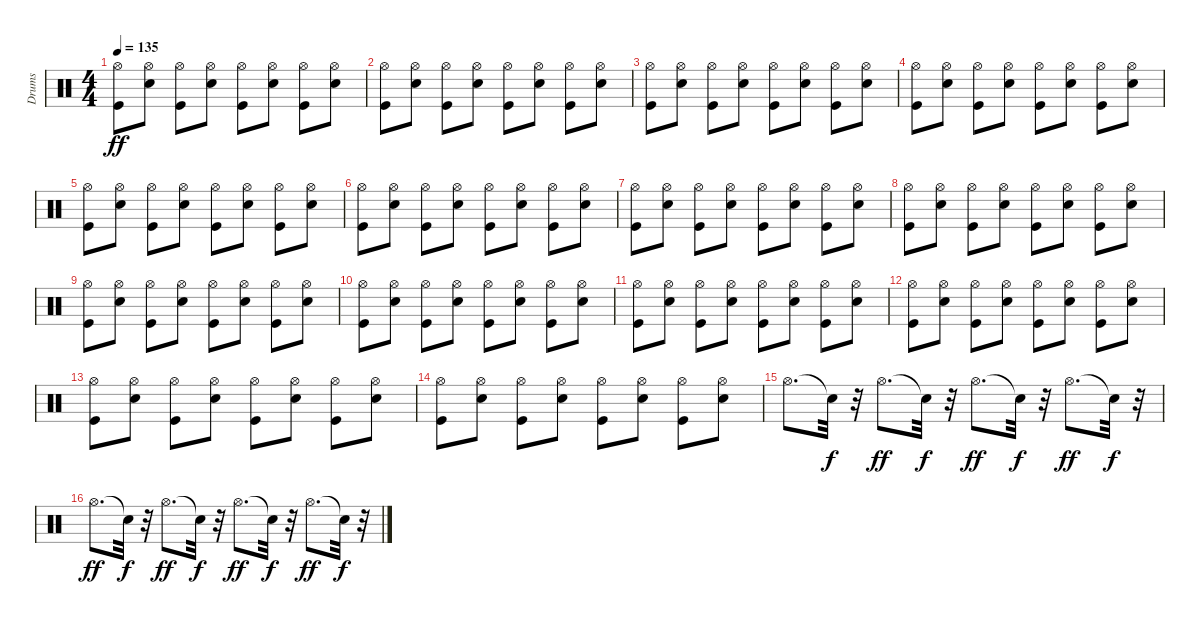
\track ("Drums" "Drums") {instrument percussion}
\staff {score}
\articulation defaults
\ts (4 4)
\tempo 135
\clef neutral
\ks c
("Kick (hit)" "Hi-Hat (open)").8{dy ff} ("Electric Snare (hit)" "Hi-Hat (open)").8 ("Kick (hit)" "Hi-Hat (open)").8 ("Electric Snare (hit)" "Hi-Hat (open)").8 ("Kick (hit)" "Hi-Hat (open)").8 ("Electric Snare (hit)" "Hi-Hat (open)").8 ("Kick (hit)" "Hi-Hat (open)").8 ("Electric Snare (hit)" "Hi-Hat (open)").8 |
("Kick (hit)" "Hi-Hat (open)").8 ("Electric Snare (hit)" "Hi-Hat (open)").8 ("Kick (hit)" "Hi-Hat (open)").8 ("Electric Snare (hit)" "Hi-Hat (open)").8 ("Kick (hit)" "Hi-Hat (open)").8 ("Electric Snare (hit)" "Hi-Hat (open)").8 ("Kick (hit)" "Hi-Hat (open)").8 ("Electric Snare (hit)" "Hi-Hat (open)").8 |
("Kick (hit)" "Hi-Hat (open)").8 ("Electric Snare (hit)" "Hi-Hat (open)").8 ("Kick (hit)" "Hi-Hat (open)").8 ("Electric Snare (hit)" "Hi-Hat (open)").8 ("Kick (hit)" "Hi-Hat (open)").8 ("Electric Snare (hit)" "Hi-Hat (open)").8 ("Kick (hit)" "Hi-Hat (open)").8 ("Electric Snare (hit)" "Hi-Hat (open)").8 |
("Kick (hit)" "Hi-Hat (open)").8 ("Electric Snare (hit)" "Hi-Hat (open)").8 ("Kick (hit)" "Hi-Hat (open)").8 ("Electric Snare (hit)" "Hi-Hat (open)").8 ("Kick (hit)" "Hi-Hat (open)").8 ("Electric Snare (hit)" "Hi-Hat (open)").8 ("Kick (hit)" "Hi-Hat (open)").8 ("Electric Snare (hit)" "Hi-Hat (open)").8 |
("Kick (hit)" "Hi-Hat (open)").8 ("Electric Snare (hit)" "Hi-Hat (open)").8 ("Kick (hit)" "Hi-Hat (open)").8 ("Electric Snare (hit)" "Hi-Hat (open)").8 ("Kick (hit)" "Hi-Hat (open)").8 ("Electric Snare (hit)" "Hi-Hat (open)").8 ("Kick (hit)" "Hi-Hat (open)").8 ("Electric Snare (hit)" "Hi-Hat (open)").8 |
("Kick (hit)" "Hi-Hat (open)").8 ("Electric Snare (hit)" "Hi-Hat (open)").8 ("Kick (hit)" "Hi-Hat (open)").8 ("Electric Snare (hit)" "Hi-Hat (open)").8 ("Kick (hit)" "Hi-Hat (open)").8 ("Electric Snare (hit)" "Hi-Hat (open)").8 ("Kick (hit)" "Hi-Hat (open)").8 ("Electric Snare (hit)" "Hi-Hat (open)").8 |
("Kick (hit)" "Hi-Hat (open)").8 ("Electric Snare (hit)" "Hi-Hat (open)").8 ("Kick (hit)" "Hi-Hat (open)").8 ("Electric Snare (hit)" "Hi-Hat (open)").8 ("Kick (hit)" "Hi-Hat (open)").8 ("Electric Snare (hit)" "Hi-Hat (open)").8 ("Kick (hit)" "Hi-Hat (open)").8 ("Electric Snare (hit)" "Hi-Hat (open)").8 |
("Kick (hit)" "Hi-Hat (open)").8 ("Electric Snare (hit)" "Hi-Hat (open)").8 ("Kick (hit)" "Hi-Hat (open)").8 ("Electric Snare (hit)" "Hi-Hat (open)").8 ("Kick (hit)" "Hi-Hat (open)").8 ("Electric Snare (hit)" "Hi-Hat (open)").8 ("Kick (hit)" "Hi-Hat (open)").8 ("Electric Snare (hit)" "Hi-Hat (open)").8 |
("Kick (hit)" "Hi-Hat (open)").8 ("Electric Snare (hit)" "Hi-Hat (open)").8 ("Kick (hit)" "Hi-Hat (open)").8 ("Electric Snare (hit)" "Hi-Hat (open)").8 ("Kick (hit)" "Hi-Hat (open)").8 ("Electric Snare (hit)" "Hi-Hat (open)").8 ("Kick (hit)" "Hi-Hat (open)").8 ("Electric Snare (hit)" "Hi-Hat (open)").8 |
("Kick (hit)" "Hi-Hat (open)").8 ("Electric Snare (hit)" "Hi-Hat (open)").8 ("Kick (hit)" "Hi-Hat (open)").8 ("Electric Snare (hit)" "Hi-Hat (open)").8 ("Kick (hit)" "Hi-Hat (open)").8 ("Electric Snare (hit)" "Hi-Hat (open)").8 ("Kick (hit)" "Hi-Hat (open)").8 ("Electric Snare (hit)" "Hi-Hat (open)").8 |
("Kick (hit)" "Hi-Hat (open)").8 ("Electric Snare (hit)" "Hi-Hat (open)").8 ("Kick (hit)" "Hi-Hat (open)").8 ("Electric Snare (hit)" "Hi-Hat (open)").8 ("Kick (hit)" "Hi-Hat (open)").8 ("Electric Snare (hit)" "Hi-Hat (open)").8 ("Kick (hit)" "Hi-Hat (open)").8 ("Electric Snare (hit)" "Hi-Hat (open)").8 |
("Kick (hit)" "Hi-Hat (open)").8 ("Electric Snare (hit)" "Hi-Hat (open)").8 ("Kick (hit)" "Hi-Hat (open)").8 ("Electric Snare (hit)" "Hi-Hat (open)").8 ("Kick (hit)" "Hi-Hat (open)").8 ("Electric Snare (hit)" "Hi-Hat (open)").8 ("Kick (hit)" "Hi-Hat (open)").8 ("Electric Snare (hit)" "Hi-Hat (open)").8 |
("Kick (hit)" "Hi-Hat (open)").8 ("Electric Snare (hit)" "Hi-Hat (open)").8 ("Kick (hit)" "Hi-Hat (open)").8 ("Electric Snare (hit)" "Hi-Hat (open)").8 ("Kick (hit)" "Hi-Hat (open)").8 ("Electric Snare (hit)" "Hi-Hat (open)").8 ("Kick (hit)" "Hi-Hat (open)").8 ("Electric Snare (hit)" "Hi-Hat (open)").8 |
("Kick (hit)" "Hi-Hat (open)").8 ("Electric Snare (hit)" "Hi-Hat (open)").8 ("Kick (hit)" "Hi-Hat (open)").8 ("Electric Snare (hit)" "Hi-Hat (open)").8 ("Kick (hit)" "Hi-Hat (open)").8 ("Electric Snare (hit)" "Hi-Hat (open)").8 ("Kick (hit)" "Hi-Hat (open)").8 ("Electric Snare (hit)" "Hi-Hat (open)").8 |
"Hi-Hat (open)".8{d} "Snare (hit)"{t}.32{dy f} r.32 "Hi-Hat (open)".8{d dy ff} "Snare (hit)"{t}.32{dy f} r.32 "Hi-Hat (open)".8{d dy ff} "Snare (hit)"{t}.32{dy f} r.32 "Hi-Hat (open)".8{d dy ff} "Snare (hit)"{t}.32{dy f} r.32 |
"Hi-Hat (open)".8{d dy ff} "Snare (hit)"{t}.32{dy f} r.32 "Hi-Hat (open)".8{d dy ff} "Snare (hit)"{t}.32{dy f} r.32 "Hi-Hat (open)".8{d dy ff} "Snare (hit)"{t}.32{dy f} r.32 "Hi-Hat (open)".8{d dy ff} "Snare (hit)"{t}.32{dy f} r.32
